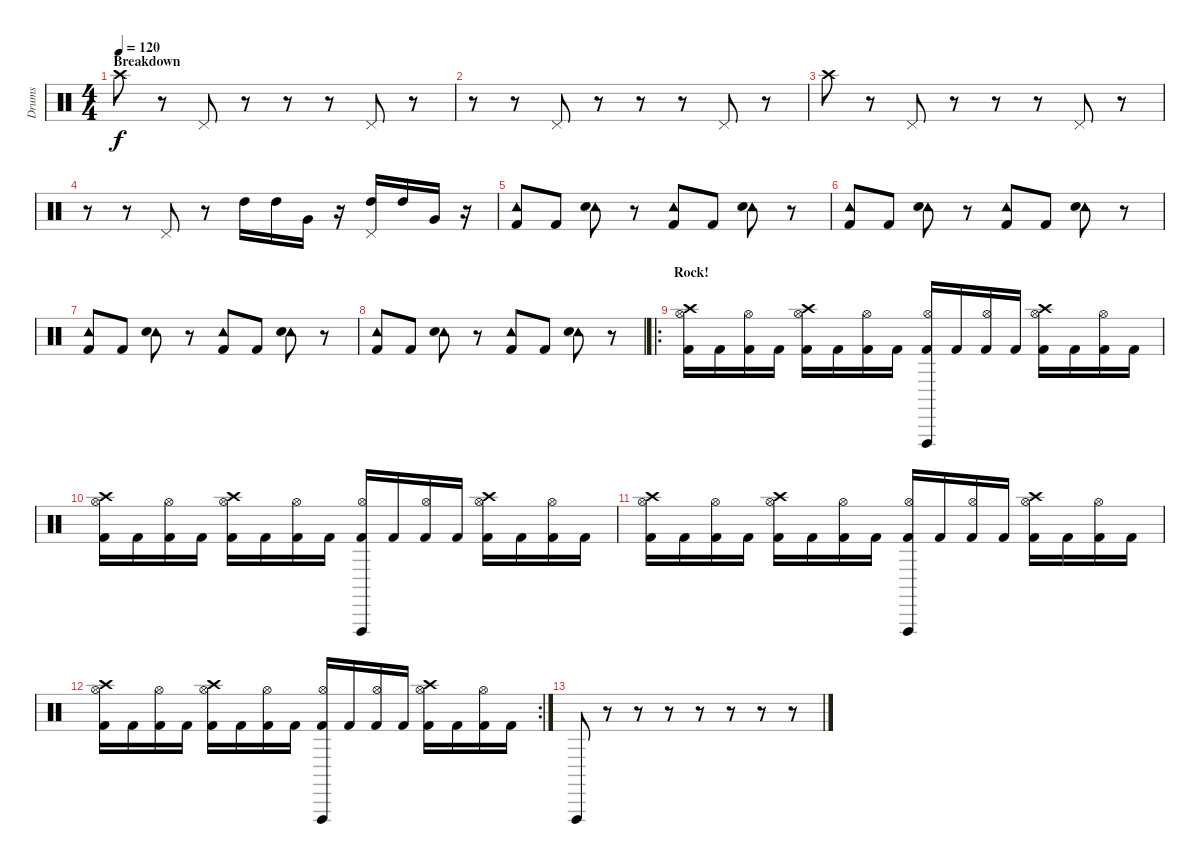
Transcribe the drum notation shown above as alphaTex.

\track ("Drums" "Drums") {instrument percussion}
\staff {score}
\articulation defaults
\ts (4 4)
\section ("" "Breakdown")
\tempo 120
\clef neutral
\ks c "Crash high (hit)".8{dy f}
r.8 "Pedal Hi-Hat (hit)".8 r.8 r.8 r.8 "Pedal Hi-Hat (hit)".8 r.8 |
r.8 r.8 "Pedal Hi-Hat (hit)".8 r.8 r.8 r.8 "Pedal Hi-Hat (hit)".8 r.8 |
"Crash high (hit)".8 r.8 "Pedal Hi-Hat (hit)".8 r.8 r.8 r.8 "Pedal Hi-Hat (hit)".8 r.8 |
r.8 r.8 "Pedal Hi-Hat (hit)".8 r.8 "High Tom (hit)".16 "High Tom (hit)".16 "Very Low Tom (hit)".16 r.16 ("Pedal Hi-Hat (hit)" "High Tom (hit)").16 "High Tom (hit)".16 "Very Low Tom (hit)".16 r.16 |
("Tambourine (hit)" "Kick (hit) 2").8 "Kick (hit) 2".8 ("Tambourine (hit)" "Hand Clap (hit)").8 r.8 ("Tambourine (hit)" "Kick (hit) 2").8 "Kick (hit) 2".8 ("Tambourine (hit)" "Hand Clap (hit)").8 r.8 |
("Tambourine (hit)" "Kick (hit) 2").8 "Kick (hit) 2".8 ("Tambourine (hit)" "Hand Clap (hit)").8 r.8 ("Tambourine (hit)" "Kick (hit) 2").8 "Kick (hit) 2".8 ("Tambourine (hit)" "Hand Clap (hit)").8 r.8 |
("Tambourine (hit)" "Kick (hit) 2").8 "Kick (hit) 2".8 ("Tambourine (hit)" "Hand Clap (hit)").8 r.8 ("Tambourine (hit)" "Kick (hit) 2").8 "Kick (hit) 2".8 ("Tambourine (hit)" "Hand Clap (hit)").8 r.8 |
("Tambourine (hit)" "Kick (hit) 2").8 "Kick (hit) 2".8 ("Tambourine (hit)" "Hand Clap (hit)").8 r.8 ("Tambourine (hit)" "Kick (hit) 2").8 "Kick (hit) 2".8 ("Tambourine (hit)" "Hand Clap (hit)").8 r.8 |
\ro
\section ("" "Rock!")
("Crash high (hit)" "Hi-Hat (open)" "Kick (hit) 2").16 "Kick (hit) 2".16 ("Hi-Hat (open)" "Kick (hit) 2").16 "Kick (hit) 2".16 ("Crash high (hit)" "Hi-Hat (open)" "Kick (hit) 2").16 "Kick (hit) 2".16 ("Hi-Hat (open)" "Kick (hit) 2").16 "Kick (hit) 2".16 ("Vibraslap (hit)" "Hi-Hat (open)" "Kick (hit) 2").16 "Kick (hit) 2".16 ("Hi-Hat (open)" "Kick (hit) 2").16 "Kick (hit) 2".16 ("Crash high (hit)" "Hi-Hat (open)" "Kick (hit) 2").16 "Kick (hit) 2".16 ("Hi-Hat (open)" "Kick (hit) 2").16 "Kick (hit) 2".16 |
("Crash high (hit)" "Hi-Hat (open)" "Kick (hit) 2").16 "Kick (hit) 2".16 ("Hi-Hat (open)" "Kick (hit) 2").16 "Kick (hit) 2".16 ("Crash high (hit)" "Hi-Hat (open)" "Kick (hit) 2").16 "Kick (hit) 2".16 ("Hi-Hat (open)" "Kick (hit) 2").16 "Kick (hit) 2".16 ("Vibraslap (hit)" "Hi-Hat (open)" "Kick (hit) 2").16 "Kick (hit) 2".16 ("Hi-Hat (open)" "Kick (hit) 2").16 "Kick (hit) 2".16 ("Crash high (hit)" "Hi-Hat (open)" "Kick (hit) 2").16 "Kick (hit) 2".16 ("Hi-Hat (open)" "Kick (hit) 2").16 "Kick (hit) 2".16 |
("Crash high (hit)" "Hi-Hat (open)" "Kick (hit) 2").16 "Kick (hit) 2".16 ("Hi-Hat (open)" "Kick (hit) 2").16 "Kick (hit) 2".16 ("Crash high (hit)" "Hi-Hat (open)" "Kick (hit) 2").16 "Kick (hit) 2".16 ("Hi-Hat (open)" "Kick (hit) 2").16 "Kick (hit) 2".16 ("Vibraslap (hit)" "Hi-Hat (open)" "Kick (hit) 2").16 "Kick (hit) 2".16 ("Hi-Hat (open)" "Kick (hit) 2").16 "Kick (hit) 2".16 ("Crash high (hit)" "Hi-Hat (open)" "Kick (hit) 2").16 "Kick (hit) 2".16 ("Hi-Hat (open)" "Kick (hit) 2").16 "Kick (hit) 2".16 |
\rc 2
("Crash high (hit)" "Hi-Hat (open)" "Kick (hit) 2").16 "Kick (hit) 2".16 ("Hi-Hat (open)" "Kick (hit) 2").16 "Kick (hit) 2".16 ("Crash high (hit)" "Hi-Hat (open)" "Kick (hit) 2").16 "Kick (hit) 2".16 ("Hi-Hat (open)" "Kick (hit) 2").16 "Kick (hit) 2".16 ("Vibraslap (hit)" "Hi-Hat (open)" "Kick (hit) 2").16 "Kick (hit) 2".16 ("Hi-Hat (open)" "Kick (hit) 2").16 "Kick (hit) 2".16 ("Crash high (hit)" "Hi-Hat (open)" "Kick (hit) 2").16 "Kick (hit) 2".16 ("Hi-Hat (open)" "Kick (hit) 2").16 "Kick (hit) 2".16 |
"Vibraslap (hit)".8 r.8 r.8 r.8 r.8 r.8 r.8 r.8
